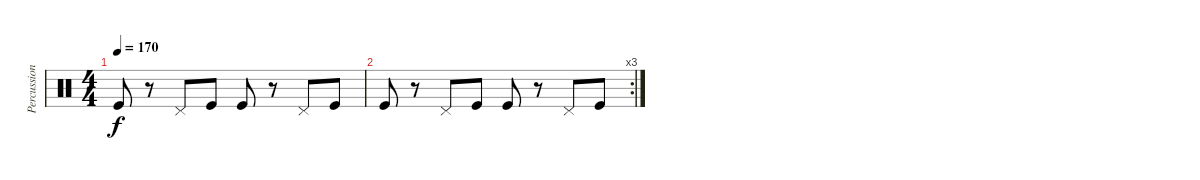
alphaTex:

\track ("Percussions" "Percussion") {instrument percussion}
\staff {score}
\articulation defaults
\ts (4 4)
\tempo 170
\clef neutral
\ks c "Kick (hit)".8{dy f}
r.8 "Pedal Hi-Hat (hit)".8 "Kick (hit)".8 "Kick (hit)".8 r.8 "Pedal Hi-Hat (hit)".8 "Kick (hit)".8 |
\rc 3 "Kick (hit)".8
r.8 "Pedal Hi-Hat (hit)".8 "Kick (hit)".8 "Kick (hit)".8 r.8 "Pedal Hi-Hat (hit)".8 "Kick (hit)".8
